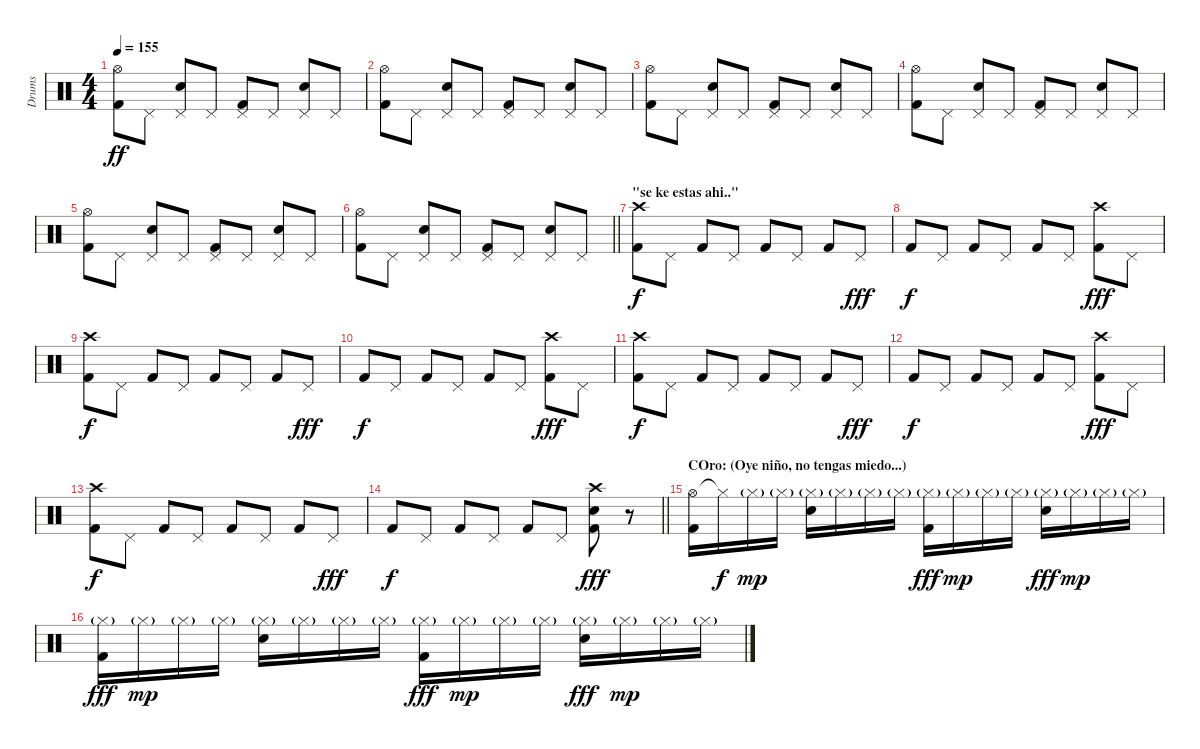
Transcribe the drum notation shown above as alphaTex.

\track ("Drums" "Drums") {instrument percussion}
\staff {score}
\articulation defaults
\ts (4 4)
\tempo 155
\clef neutral
\ks c
("Hi-Hat (open)" "Kick (hit) 2").8{dy ff} "Pedal Hi-Hat (hit)".8 ("Pedal Hi-Hat (hit)" "Electric Snare (hit)").8 "Pedal Hi-Hat (hit)".8 ("Pedal Hi-Hat (hit)" "Kick (hit) 2").8 "Pedal Hi-Hat (hit)".8 ("Pedal Hi-Hat (hit)" "Electric Snare (hit)").8 "Pedal Hi-Hat (hit)".8 |
("Hi-Hat (open)" "Kick (hit) 2").8 "Pedal Hi-Hat (hit)".8 ("Pedal Hi-Hat (hit)" "Electric Snare (hit)").8 "Pedal Hi-Hat (hit)".8 ("Pedal Hi-Hat (hit)" "Kick (hit) 2").8 "Pedal Hi-Hat (hit)".8 ("Pedal Hi-Hat (hit)" "Electric Snare (hit)").8 "Pedal Hi-Hat (hit)".8 |
("Hi-Hat (open)" "Kick (hit) 2").8 "Pedal Hi-Hat (hit)".8 ("Pedal Hi-Hat (hit)" "Electric Snare (hit)").8 "Pedal Hi-Hat (hit)".8 ("Pedal Hi-Hat (hit)" "Kick (hit) 2").8 "Pedal Hi-Hat (hit)".8 ("Pedal Hi-Hat (hit)" "Electric Snare (hit)").8 "Pedal Hi-Hat (hit)".8 |
("Hi-Hat (open)" "Kick (hit) 2").8 "Pedal Hi-Hat (hit)".8 ("Pedal Hi-Hat (hit)" "Electric Snare (hit)").8 "Pedal Hi-Hat (hit)".8 ("Pedal Hi-Hat (hit)" "Kick (hit) 2").8 "Pedal Hi-Hat (hit)".8 ("Pedal Hi-Hat (hit)" "Electric Snare (hit)").8 "Pedal Hi-Hat (hit)".8 |
("Hi-Hat (open)" "Kick (hit) 2").8 "Pedal Hi-Hat (hit)".8 ("Pedal Hi-Hat (hit)" "Electric Snare (hit)").8 "Pedal Hi-Hat (hit)".8 ("Pedal Hi-Hat (hit)" "Kick (hit) 2").8 "Pedal Hi-Hat (hit)".8 ("Pedal Hi-Hat (hit)" "Electric Snare (hit)").8 "Pedal Hi-Hat (hit)".8 |
\barLineRight lightlight
("Hi-Hat (open)" "Kick (hit) 2").8 "Pedal Hi-Hat (hit)".8 ("Pedal Hi-Hat (hit)" "Electric Snare (hit)").8 "Pedal Hi-Hat (hit)".8 ("Pedal Hi-Hat (hit)" "Kick (hit) 2").8 "Pedal Hi-Hat (hit)".8 ("Pedal Hi-Hat (hit)" "Electric Snare (hit)").8 "Pedal Hi-Hat (hit)".8 |
\section ("" "\"se ke estas ahi..\"")
("Crash high (hit)" "Kick (hit) 2").8{dy f} "Pedal Hi-Hat (hit)".8 "Kick (hit) 2".8 "Pedal Hi-Hat (hit)".8 "Kick (hit) 2".8 "Pedal Hi-Hat (hit)".8 "Kick (hit) 2".8 "Pedal Hi-Hat (hit)".8{dy fff} |
"Kick (hit) 2".8{dy f} "Pedal Hi-Hat (hit)".8 "Kick (hit) 2".8 "Pedal Hi-Hat (hit)".8 "Kick (hit) 2".8 "Pedal Hi-Hat (hit)".8 ("Crash high (hit)" "Kick (hit) 2").8{dy fff} "Pedal Hi-Hat (hit)".8 |
("Crash high (hit)" "Kick (hit) 2").8{dy f} "Pedal Hi-Hat (hit)".8 "Kick (hit) 2".8 "Pedal Hi-Hat (hit)".8 "Kick (hit) 2".8 "Pedal Hi-Hat (hit)".8 "Kick (hit) 2".8 "Pedal Hi-Hat (hit)".8{dy fff} |
"Kick (hit) 2".8{dy f} "Pedal Hi-Hat (hit)".8 "Kick (hit) 2".8 "Pedal Hi-Hat (hit)".8 "Kick (hit) 2".8 "Pedal Hi-Hat (hit)".8 ("Crash high (hit)" "Kick (hit) 2").8{dy fff} "Pedal Hi-Hat (hit)".8 |
("Crash high (hit)" "Kick (hit) 2").8{dy f} "Pedal Hi-Hat (hit)".8 "Kick (hit) 2".8 "Pedal Hi-Hat (hit)".8 "Kick (hit) 2".8 "Pedal Hi-Hat (hit)".8 "Kick (hit) 2".8 "Pedal Hi-Hat (hit)".8{dy fff} |
"Kick (hit) 2".8{dy f} "Pedal Hi-Hat (hit)".8 "Kick (hit) 2".8 "Pedal Hi-Hat (hit)".8 "Kick (hit) 2".8 "Pedal Hi-Hat (hit)".8 ("Crash high (hit)" "Kick (hit) 2").8{dy fff} "Pedal Hi-Hat (hit)".8 |
("Crash high (hit)" "Kick (hit) 2").8{dy f} "Pedal Hi-Hat (hit)".8 "Kick (hit) 2".8 "Pedal Hi-Hat (hit)".8 "Kick (hit) 2".8 "Pedal Hi-Hat (hit)".8 "Kick (hit) 2".8 "Pedal Hi-Hat (hit)".8{dy fff} |
\barLineRight lightlight "Kick (hit) 2".8{dy f} "Pedal Hi-Hat (hit)".8 "Kick (hit) 2".8 "Pedal Hi-Hat (hit)".8 "Kick (hit) 2".8 "Pedal Hi-Hat (hit)".8
("Crash high (hit)" "Electric Snare (hit)" "Kick (hit) 2").8{dy fff} r.8 |
\section ("" "COro: (Oye niño, no tengas miedo...)")
("Hi-Hat (open)" "Kick (hit) 2").16 "Hi-Hat (closed)"{t}.16{dy f} "Hi-Hat (closed)"{g}.16{dy mp} "Hi-Hat (closed)"{g}.16 ("Hi-Hat (closed)"{g} "Electric Snare (hit)").16 "Hi-Hat (closed)"{g}.16 "Hi-Hat (closed)"{g}.16 "Hi-Hat (closed)"{g}.16 ("Hi-Hat (closed)"{g} "Kick (hit) 2").16{dy fff} "Hi-Hat (closed)"{g}.16{dy mp} "Hi-Hat (closed)"{g}.16 "Hi-Hat (closed)"{g}.16 ("Hi-Hat (closed)"{g} "Electric Snare (hit)").16{dy fff} "Hi-Hat (closed)"{g}.16{dy mp} "Hi-Hat (closed)"{g}.16 "Hi-Hat (closed)"{g}.16 |
("Hi-Hat (closed)"{g} "Kick (hit) 2").16{dy fff} "Hi-Hat (closed)"{g}.16{dy mp} "Hi-Hat (closed)"{g}.16 "Hi-Hat (closed)"{g}.16 ("Hi-Hat (closed)"{g} "Electric Snare (hit)").16 "Hi-Hat (closed)"{g}.16 "Hi-Hat (closed)"{g}.16 "Hi-Hat (closed)"{g}.16 ("Hi-Hat (closed)"{g} "Kick (hit) 2").16{dy fff} "Hi-Hat (closed)"{g}.16{dy mp} "Hi-Hat (closed)"{g}.16 "Hi-Hat (closed)"{g}.16 ("Hi-Hat (closed)"{g} "Electric Snare (hit)").16{dy fff} "Hi-Hat (closed)"{g}.16{dy mp} "Hi-Hat (closed)"{g}.16 "Hi-Hat (closed)"{g}.16
